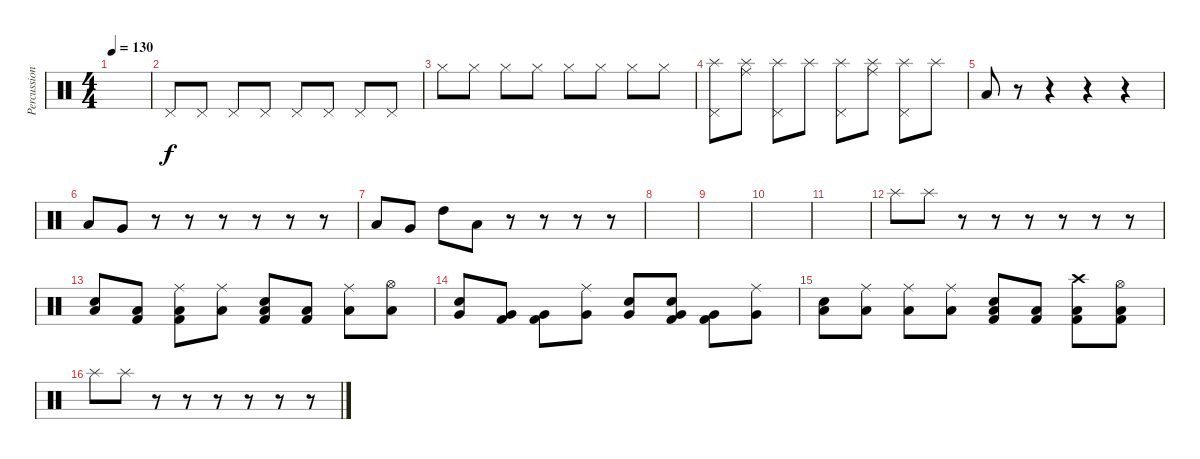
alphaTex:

\track ("Percussions" "Percussion") {instrument percussion}
\staff {score}
\articulation defaults
\ts (4 4)
\tempo 130
\clef neutral
\ks c
|
"Pedal Hi-Hat (hit)".8 "Pedal Hi-Hat (hit)".8 "Pedal Hi-Hat (hit)".8 "Pedal Hi-Hat (hit)".8 "Pedal Hi-Hat (hit)".8 "Pedal Hi-Hat (hit)".8 "Pedal Hi-Hat (hit)".8 "Pedal Hi-Hat (hit)".8 |
"Hi-Hat (closed)".8 "Hi-Hat (closed)".8 "Hi-Hat (closed)".8 "Hi-Hat (closed)".8 "Hi-Hat (closed)".8 "Hi-Hat (closed)".8 "Hi-Hat (closed)".8 "Hi-Hat (closed)".8 |
("Pedal Hi-Hat (hit)" "Splash (hit)").8 ("Ride (middle)" "Splash (hit)").8 ("Pedal Hi-Hat (hit)" "Splash (hit)").8 "Splash (hit)".8 ("Pedal Hi-Hat (hit)" "Splash (hit)").8 ("Ride (middle)" "Splash (hit)").8 ("Pedal Hi-Hat (hit)" "Splash (hit)").8 "Splash (hit)".8 |
"Low Tom (hit)".8 r.8 r.4 r.4 r.4 |
"Low Tom (hit)".8 "Very Low Tom (hit)".8 r.8 r.8 r.8 r.8 r.8 r.8 |
"Low Tom (hit)".8 "Very Low Tom (hit)".8 "High Tom (hit)".8 "Low Floor Tom (hit)".8 r.8 r.8 r.8 r.8 |
|
|
|
|
"Splash (hit)".8 "Splash (hit)".8 r.8 r.8 r.8 r.8 r.8 r.8 |
("Electric Snare (hit)" "Low Tom (hit)").8 ("Low Tom (hit)" "Kick (hit) 2").8 ("Ride (middle)" "Low Tom (hit)" "Kick (hit) 2").8 ("Ride (middle)" "Low Tom (hit)").8 ("Electric Snare (hit)" "Low Tom (hit)" "Kick (hit) 2").8 ("Low Tom (hit)" "Kick (hit) 2").8 ("Ride (middle)" "Low Tom (hit)").8 ("Hi-Hat (open)" "Low Tom (hit)").8 |
("Electric Snare (hit)" "Very Low Tom (hit)").8 ("Very Low Tom (hit)" "Kick (hit) 2").8 ("Very Low Tom (hit)" "Kick (hit) 2").8 ("Ride (middle)" "Very Low Tom (hit)").8 ("Electric Snare (hit)" "Very Low Tom (hit)").8 ("Electric Snare (hit)" "Very Low Tom (hit)" "Kick (hit) 2").8 ("Very Low Tom (hit)" "Kick (hit) 2").8 ("Ride (middle)" "Very Low Tom (hit)").8 |
("Electric Snare (hit)" "Low Floor Tom (hit)").8 ("Ride (middle)" "Low Floor Tom (hit)").8 ("Ride (middle)" "Low Floor Tom (hit)").8 ("Ride (middle)" "Low Floor Tom (hit)").8 ("Electric Snare (hit)" "Low Floor Tom (hit)" "Kick (hit) 2").8 ("Low Floor Tom (hit)" "Kick (hit) 2").8 ("Crash high (hit)" "Low Floor Tom (hit)" "Kick (hit) 2").8 ("Hi-Hat (open)" "Low Floor Tom (hit)" "Kick (hit) 2").8 |
"Splash (hit)".8 "Splash (hit)".8 r.8 r.8 r.8 r.8 r.8 r.8
